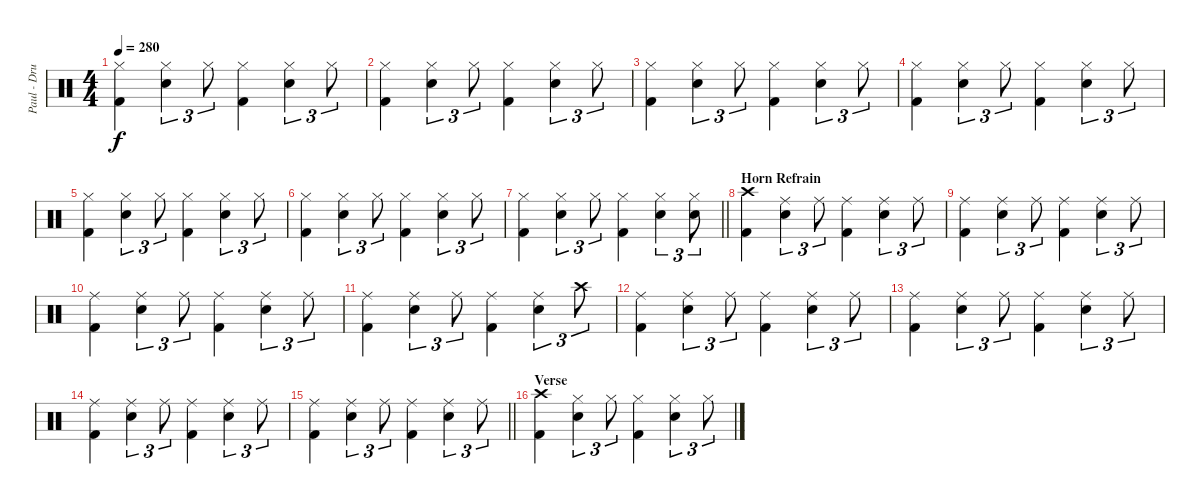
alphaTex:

\track ("Paul - Drums" "Paul - Dru") {instrument percussion}
\staff {score}
\articulation defaults
\ts (4 4)
\tempo 280
\clef neutral
\ks c
("Hi-Hat (closed)" "Kick (hit) 2").4{dy f} ("Hi-Hat (closed)" "Electric Snare (hit)").4{tu (3 2)} "Hi-Hat (closed)".8{tu (3 2)} ("Hi-Hat (closed)" "Kick (hit) 2").4 ("Hi-Hat (closed)" "Electric Snare (hit)").4{tu (3 2)} "Hi-Hat (closed)".8{tu (3 2)} |
("Hi-Hat (closed)" "Kick (hit) 2").4 ("Hi-Hat (closed)" "Electric Snare (hit)").4{tu (3 2)} "Hi-Hat (closed)".8{tu (3 2)} ("Hi-Hat (closed)" "Kick (hit) 2").4 ("Hi-Hat (closed)" "Electric Snare (hit)").4{tu (3 2)} "Hi-Hat (closed)".8{tu (3 2)} |
("Hi-Hat (closed)" "Kick (hit) 2").4 ("Hi-Hat (closed)" "Electric Snare (hit)").4{tu (3 2)} "Hi-Hat (closed)".8{tu (3 2)} ("Hi-Hat (closed)" "Kick (hit) 2").4 ("Hi-Hat (closed)" "Electric Snare (hit)").4{tu (3 2)} "Hi-Hat (closed)".8{tu (3 2)} |
("Hi-Hat (closed)" "Kick (hit) 2").4 ("Hi-Hat (closed)" "Electric Snare (hit)").4{tu (3 2)} "Hi-Hat (closed)".8{tu (3 2)} ("Hi-Hat (closed)" "Kick (hit) 2").4 ("Hi-Hat (closed)" "Electric Snare (hit)").4{tu (3 2)} "Hi-Hat (closed)".8{tu (3 2)} |
("Hi-Hat (closed)" "Kick (hit) 2").4 ("Hi-Hat (closed)" "Electric Snare (hit)").4{tu (3 2)} "Hi-Hat (closed)".8{tu (3 2)} ("Hi-Hat (closed)" "Kick (hit) 2").4 ("Hi-Hat (closed)" "Electric Snare (hit)").4{tu (3 2)} "Hi-Hat (closed)".8{tu (3 2)} |
("Hi-Hat (closed)" "Kick (hit) 2").4 ("Hi-Hat (closed)" "Electric Snare (hit)").4{tu (3 2)} "Hi-Hat (closed)".8{tu (3 2)} ("Hi-Hat (closed)" "Kick (hit) 2").4 ("Hi-Hat (closed)" "Electric Snare (hit)").4{tu (3 2)} "Hi-Hat (closed)".8{tu (3 2)} |
\barLineRight lightlight
("Hi-Hat (closed)" "Kick (hit) 2").4 ("Hi-Hat (closed)" "Electric Snare (hit)").4{tu (3 2)} "Hi-Hat (closed)".8{tu (3 2)} ("Hi-Hat (closed)" "Kick (hit) 2").4 ("Hi-Hat (closed)" "Electric Snare (hit)").4{tu (3 2)} ("Hi-Hat (closed)" "Electric Snare (hit)").8{tu (3 2)} |
\section ("" "Horn Refrain")
("Crash high (hit)" "Kick (hit) 2").4 ("Ride (middle)" "Electric Snare (hit)").4{tu (3 2)} "Ride (middle)".8{tu (3 2)} ("Ride (middle)" "Kick (hit) 2").4 ("Ride (middle)" "Electric Snare (hit)").4{tu (3 2)} "Ride (middle)".8{tu (3 2)} |
("Ride (middle)" "Kick (hit) 2").4 ("Ride (middle)" "Electric Snare (hit)").4{tu (3 2)} "Ride (middle)".8{tu (3 2)} ("Ride (middle)" "Kick (hit) 2").4 ("Ride (middle)" "Electric Snare (hit)").4{tu (3 2)} "Ride (middle)".8{tu (3 2)} |
("Ride (middle)" "Kick (hit) 2").4 ("Ride (middle)" "Electric Snare (hit)").4{tu (3 2)} "Ride (middle)".8{tu (3 2)} ("Ride (middle)" "Kick (hit) 2").4 ("Ride (middle)" "Electric Snare (hit)").4{tu (3 2)} "Ride (middle)".8{tu (3 2)} |
("Ride (middle)" "Kick (hit) 2").4 ("Ride (middle)" "Electric Snare (hit)").4{tu (3 2)} "Ride (middle)".8{tu (3 2)} ("Ride (middle)" "Kick (hit) 2").4 ("Ride (middle)" "Electric Snare (hit)").4{tu (3 2)} "Crash high (hit)".8{tu (3 2)} |
("Ride (middle)" "Kick (hit) 2").4 ("Ride (middle)" "Electric Snare (hit)").4{tu (3 2)} "Ride (middle)".8{tu (3 2)} ("Ride (middle)" "Kick (hit) 2").4 ("Ride (middle)" "Electric Snare (hit)").4{tu (3 2)} "Ride (middle)".8{tu (3 2)} |
("Ride (middle)" "Kick (hit) 2").4 ("Ride (middle)" "Electric Snare (hit)").4{tu (3 2)} "Ride (middle)".8{tu (3 2)} ("Ride (middle)" "Kick (hit) 2").4 ("Ride (middle)" "Electric Snare (hit)").4{tu (3 2)} "Ride (middle)".8{tu (3 2)} |
("Ride (middle)" "Kick (hit) 2").4 ("Ride (middle)" "Electric Snare (hit)").4{tu (3 2)} "Ride (middle)".8{tu (3 2)} ("Ride (middle)" "Kick (hit) 2").4 ("Ride (middle)" "Electric Snare (hit)").4{tu (3 2)} "Ride (middle)".8{tu (3 2)} |
\barLineRight lightlight
("Ride (middle)" "Kick (hit) 2").4 ("Ride (middle)" "Electric Snare (hit)").4{tu (3 2)} "Ride (middle)".8{tu (3 2)} ("Ride (middle)" "Kick (hit) 2").4 ("Ride (middle)" "Electric Snare (hit)").4{tu (3 2)} "Ride (middle)".8{tu (3 2)} |
\section ("" "Verse")
("Crash high (hit)" "Kick (hit) 2").4 ("Hi-Hat (closed)" "Electric Snare (hit)").4{tu (3 2)} "Hi-Hat (closed)".8{tu (3 2)} ("Hi-Hat (closed)" "Kick (hit) 2").4 ("Hi-Hat (closed)" "Electric Snare (hit)").4{tu (3 2)} "Hi-Hat (closed)".8{tu (3 2)}
